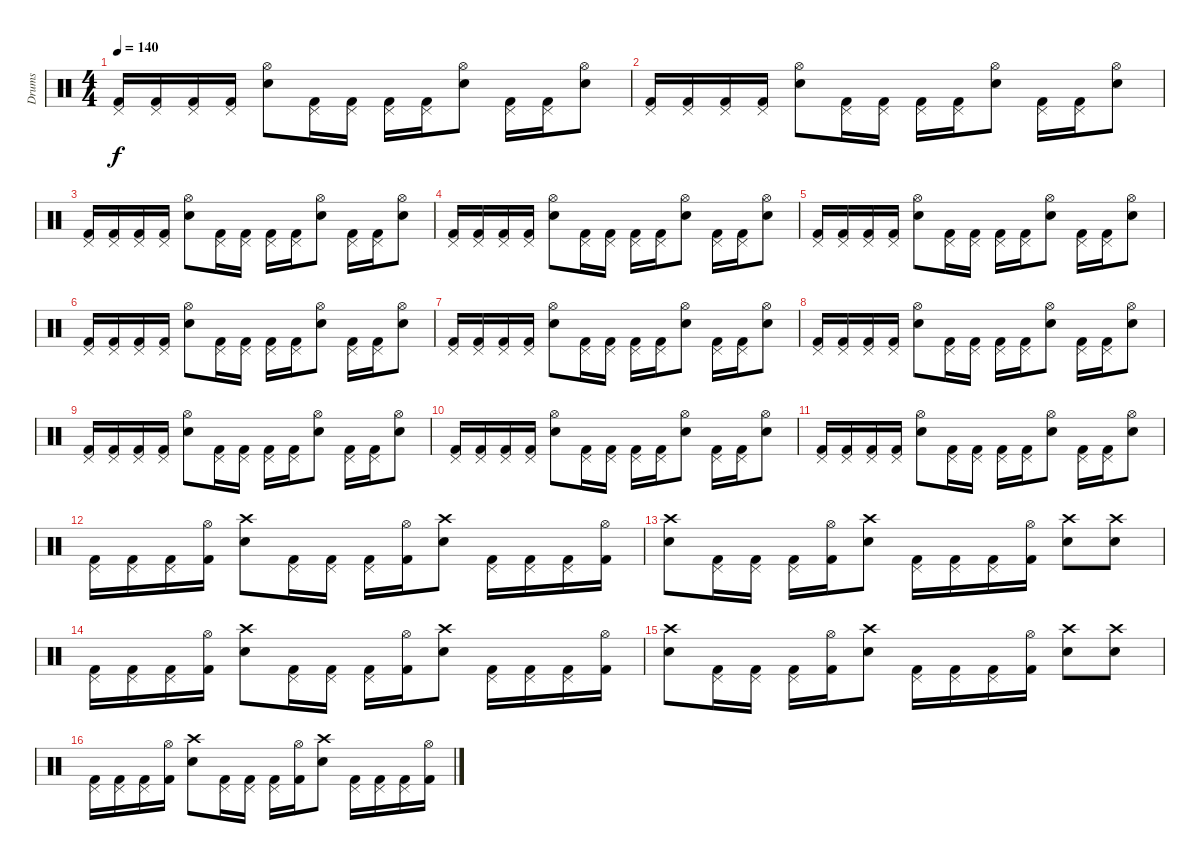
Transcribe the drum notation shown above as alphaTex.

\track ("Drums" "Drums") {instrument percussion}
\staff {score}
\articulation defaults
\ts (4 4)
\tempo 140
\clef neutral
\ks c
("Pedal Hi-Hat (hit)" "Kick (hit) 2").16{dy f} ("Pedal Hi-Hat (hit)" "Kick (hit) 2").16 ("Pedal Hi-Hat (hit)" "Kick (hit) 2").16 ("Pedal Hi-Hat (hit)" "Kick (hit) 2").16 ("Hi-Hat (open)" "Electric Snare (hit)").8 ("Pedal Hi-Hat (hit)" "Kick (hit) 2").16 ("Pedal Hi-Hat (hit)" "Kick (hit) 2").16 ("Pedal Hi-Hat (hit)" "Kick (hit) 2").16 ("Pedal Hi-Hat (hit)" "Kick (hit) 2").16 ("Hi-Hat (open)" "Electric Snare (hit)").8 ("Pedal Hi-Hat (hit)" "Kick (hit) 2").16 ("Pedal Hi-Hat (hit)" "Kick (hit) 2").16 ("Hi-Hat (open)" "Electric Snare (hit)").8 |
("Pedal Hi-Hat (hit)" "Kick (hit) 2").16 ("Pedal Hi-Hat (hit)" "Kick (hit) 2").16 ("Pedal Hi-Hat (hit)" "Kick (hit) 2").16 ("Pedal Hi-Hat (hit)" "Kick (hit) 2").16 ("Hi-Hat (open)" "Electric Snare (hit)").8 ("Pedal Hi-Hat (hit)" "Kick (hit) 2").16 ("Pedal Hi-Hat (hit)" "Kick (hit) 2").16 ("Pedal Hi-Hat (hit)" "Kick (hit) 2").16 ("Pedal Hi-Hat (hit)" "Kick (hit) 2").16 ("Hi-Hat (open)" "Electric Snare (hit)").8 ("Pedal Hi-Hat (hit)" "Kick (hit) 2").16 ("Pedal Hi-Hat (hit)" "Kick (hit) 2").16 ("Hi-Hat (open)" "Electric Snare (hit)").8 |
("Pedal Hi-Hat (hit)" "Kick (hit) 2").16 ("Pedal Hi-Hat (hit)" "Kick (hit) 2").16 ("Pedal Hi-Hat (hit)" "Kick (hit) 2").16 ("Pedal Hi-Hat (hit)" "Kick (hit) 2").16 ("Hi-Hat (open)" "Electric Snare (hit)").8 ("Pedal Hi-Hat (hit)" "Kick (hit) 2").16 ("Pedal Hi-Hat (hit)" "Kick (hit) 2").16 ("Pedal Hi-Hat (hit)" "Kick (hit) 2").16 ("Pedal Hi-Hat (hit)" "Kick (hit) 2").16 ("Hi-Hat (open)" "Electric Snare (hit)").8 ("Pedal Hi-Hat (hit)" "Kick (hit) 2").16 ("Pedal Hi-Hat (hit)" "Kick (hit) 2").16 ("Hi-Hat (open)" "Electric Snare (hit)").8 |
("Pedal Hi-Hat (hit)" "Kick (hit) 2").16 ("Pedal Hi-Hat (hit)" "Kick (hit) 2").16 ("Pedal Hi-Hat (hit)" "Kick (hit) 2").16 ("Pedal Hi-Hat (hit)" "Kick (hit) 2").16 ("Hi-Hat (open)" "Electric Snare (hit)").8 ("Pedal Hi-Hat (hit)" "Kick (hit) 2").16 ("Pedal Hi-Hat (hit)" "Kick (hit) 2").16 ("Pedal Hi-Hat (hit)" "Kick (hit) 2").16 ("Pedal Hi-Hat (hit)" "Kick (hit) 2").16 ("Hi-Hat (open)" "Electric Snare (hit)").8 ("Pedal Hi-Hat (hit)" "Kick (hit) 2").16 ("Pedal Hi-Hat (hit)" "Kick (hit) 2").16 ("Hi-Hat (open)" "Electric Snare (hit)").8 |
("Pedal Hi-Hat (hit)" "Kick (hit) 2").16 ("Pedal Hi-Hat (hit)" "Kick (hit) 2").16 ("Pedal Hi-Hat (hit)" "Kick (hit) 2").16 ("Pedal Hi-Hat (hit)" "Kick (hit) 2").16 ("Hi-Hat (open)" "Electric Snare (hit)").8 ("Pedal Hi-Hat (hit)" "Kick (hit) 2").16 ("Pedal Hi-Hat (hit)" "Kick (hit) 2").16 ("Pedal Hi-Hat (hit)" "Kick (hit) 2").16 ("Pedal Hi-Hat (hit)" "Kick (hit) 2").16 ("Hi-Hat (open)" "Electric Snare (hit)").8 ("Pedal Hi-Hat (hit)" "Kick (hit) 2").16 ("Pedal Hi-Hat (hit)" "Kick (hit) 2").16 ("Hi-Hat (open)" "Electric Snare (hit)").8 |
("Pedal Hi-Hat (hit)" "Kick (hit) 2").16 ("Pedal Hi-Hat (hit)" "Kick (hit) 2").16 ("Pedal Hi-Hat (hit)" "Kick (hit) 2").16 ("Pedal Hi-Hat (hit)" "Kick (hit) 2").16 ("Hi-Hat (open)" "Electric Snare (hit)").8 ("Pedal Hi-Hat (hit)" "Kick (hit) 2").16 ("Pedal Hi-Hat (hit)" "Kick (hit) 2").16 ("Pedal Hi-Hat (hit)" "Kick (hit) 2").16 ("Pedal Hi-Hat (hit)" "Kick (hit) 2").16 ("Hi-Hat (open)" "Electric Snare (hit)").8 ("Pedal Hi-Hat (hit)" "Kick (hit) 2").16 ("Pedal Hi-Hat (hit)" "Kick (hit) 2").16 ("Hi-Hat (open)" "Electric Snare (hit)").8 |
("Pedal Hi-Hat (hit)" "Kick (hit) 2").16 ("Pedal Hi-Hat (hit)" "Kick (hit) 2").16 ("Pedal Hi-Hat (hit)" "Kick (hit) 2").16 ("Pedal Hi-Hat (hit)" "Kick (hit) 2").16 ("Hi-Hat (open)" "Electric Snare (hit)").8 ("Pedal Hi-Hat (hit)" "Kick (hit) 2").16 ("Pedal Hi-Hat (hit)" "Kick (hit) 2").16 ("Pedal Hi-Hat (hit)" "Kick (hit) 2").16 ("Pedal Hi-Hat (hit)" "Kick (hit) 2").16 ("Hi-Hat (open)" "Electric Snare (hit)").8 ("Pedal Hi-Hat (hit)" "Kick (hit) 2").16 ("Pedal Hi-Hat (hit)" "Kick (hit) 2").16 ("Hi-Hat (open)" "Electric Snare (hit)").8 |
("Pedal Hi-Hat (hit)" "Kick (hit) 2").16 ("Pedal Hi-Hat (hit)" "Kick (hit) 2").16 ("Pedal Hi-Hat (hit)" "Kick (hit) 2").16 ("Pedal Hi-Hat (hit)" "Kick (hit) 2").16 ("Hi-Hat (open)" "Electric Snare (hit)").8 ("Pedal Hi-Hat (hit)" "Kick (hit) 2").16 ("Pedal Hi-Hat (hit)" "Kick (hit) 2").16 ("Pedal Hi-Hat (hit)" "Kick (hit) 2").16 ("Pedal Hi-Hat (hit)" "Kick (hit) 2").16 ("Hi-Hat (open)" "Electric Snare (hit)").8 ("Pedal Hi-Hat (hit)" "Kick (hit) 2").16 ("Pedal Hi-Hat (hit)" "Kick (hit) 2").16 ("Hi-Hat (open)" "Electric Snare (hit)").8 |
("Pedal Hi-Hat (hit)" "Kick (hit) 2").16 ("Pedal Hi-Hat (hit)" "Kick (hit) 2").16 ("Pedal Hi-Hat (hit)" "Kick (hit) 2").16 ("Pedal Hi-Hat (hit)" "Kick (hit) 2").16 ("Hi-Hat (open)" "Electric Snare (hit)").8 ("Pedal Hi-Hat (hit)" "Kick (hit) 2").16 ("Pedal Hi-Hat (hit)" "Kick (hit) 2").16 ("Pedal Hi-Hat (hit)" "Kick (hit) 2").16 ("Pedal Hi-Hat (hit)" "Kick (hit) 2").16 ("Hi-Hat (open)" "Electric Snare (hit)").8 ("Pedal Hi-Hat (hit)" "Kick (hit) 2").16 ("Pedal Hi-Hat (hit)" "Kick (hit) 2").16 ("Hi-Hat (open)" "Electric Snare (hit)").8 |
("Pedal Hi-Hat (hit)" "Kick (hit) 2").16 ("Pedal Hi-Hat (hit)" "Kick (hit) 2").16 ("Pedal Hi-Hat (hit)" "Kick (hit) 2").16 ("Pedal Hi-Hat (hit)" "Kick (hit) 2").16 ("Hi-Hat (open)" "Electric Snare (hit)").8 ("Pedal Hi-Hat (hit)" "Kick (hit) 2").16 ("Pedal Hi-Hat (hit)" "Kick (hit) 2").16 ("Pedal Hi-Hat (hit)" "Kick (hit) 2").16 ("Pedal Hi-Hat (hit)" "Kick (hit) 2").16 ("Hi-Hat (open)" "Electric Snare (hit)").8 ("Pedal Hi-Hat (hit)" "Kick (hit) 2").16 ("Pedal Hi-Hat (hit)" "Kick (hit) 2").16 ("Hi-Hat (open)" "Electric Snare (hit)").8 |
("Pedal Hi-Hat (hit)" "Kick (hit) 2").16 ("Pedal Hi-Hat (hit)" "Kick (hit) 2").16 ("Pedal Hi-Hat (hit)" "Kick (hit) 2").16 ("Pedal Hi-Hat (hit)" "Kick (hit) 2").16 ("Hi-Hat (open)" "Electric Snare (hit)").8 ("Pedal Hi-Hat (hit)" "Kick (hit) 2").16 ("Pedal Hi-Hat (hit)" "Kick (hit) 2").16 ("Pedal Hi-Hat (hit)" "Kick (hit) 2").16 ("Pedal Hi-Hat (hit)" "Kick (hit) 2").16 ("Hi-Hat (open)" "Electric Snare (hit)").8 ("Pedal Hi-Hat (hit)" "Kick (hit) 2").16 ("Pedal Hi-Hat (hit)" "Kick (hit) 2").16 ("Hi-Hat (open)" "Electric Snare (hit)").8 |
("Pedal Hi-Hat (hit)" "Kick (hit) 2").16 ("Pedal Hi-Hat (hit)" "Kick (hit) 2").16 ("Pedal Hi-Hat (hit)" "Kick (hit) 2").16 ("Hi-Hat (open)" "Kick (hit) 2").16 ("Crash high (hit)" "Electric Snare (hit)").8 ("Pedal Hi-Hat (hit)" "Kick (hit) 2").16 ("Pedal Hi-Hat (hit)" "Kick (hit) 2").16 ("Pedal Hi-Hat (hit)" "Kick (hit) 2").16 ("Hi-Hat (open)" "Kick (hit) 2").16 ("Crash high (hit)" "Electric Snare (hit)").8 ("Pedal Hi-Hat (hit)" "Kick (hit) 2").16 ("Pedal Hi-Hat (hit)" "Kick (hit) 2").16 ("Pedal Hi-Hat (hit)" "Kick (hit) 2").16 ("Hi-Hat (open)" "Kick (hit) 2").16 |
("Crash high (hit)" "Electric Snare (hit)").8 ("Pedal Hi-Hat (hit)" "Kick (hit) 2").16 ("Pedal Hi-Hat (hit)" "Kick (hit) 2").16 ("Pedal Hi-Hat (hit)" "Kick (hit) 2").16 ("Hi-Hat (open)" "Kick (hit) 2").16 ("Crash high (hit)" "Electric Snare (hit)").8 ("Pedal Hi-Hat (hit)" "Kick (hit) 2").16 ("Pedal Hi-Hat (hit)" "Kick (hit) 2").16 ("Pedal Hi-Hat (hit)" "Kick (hit) 2").16 ("Hi-Hat (open)" "Kick (hit) 2").16 ("Crash high (hit)" "Electric Snare (hit)").8 ("Crash high (hit)" "Electric Snare (hit)").8 |
("Pedal Hi-Hat (hit)" "Kick (hit) 2").16 ("Pedal Hi-Hat (hit)" "Kick (hit) 2").16 ("Pedal Hi-Hat (hit)" "Kick (hit) 2").16 ("Hi-Hat (open)" "Kick (hit) 2").16 ("Crash high (hit)" "Electric Snare (hit)").8 ("Pedal Hi-Hat (hit)" "Kick (hit) 2").16 ("Pedal Hi-Hat (hit)" "Kick (hit) 2").16 ("Pedal Hi-Hat (hit)" "Kick (hit) 2").16 ("Hi-Hat (open)" "Kick (hit) 2").16 ("Crash high (hit)" "Electric Snare (hit)").8 ("Pedal Hi-Hat (hit)" "Kick (hit) 2").16 ("Pedal Hi-Hat (hit)" "Kick (hit) 2").16 ("Pedal Hi-Hat (hit)" "Kick (hit) 2").16 ("Hi-Hat (open)" "Kick (hit) 2").16 |
("Crash high (hit)" "Electric Snare (hit)").8 ("Pedal Hi-Hat (hit)" "Kick (hit) 2").16 ("Pedal Hi-Hat (hit)" "Kick (hit) 2").16 ("Pedal Hi-Hat (hit)" "Kick (hit) 2").16 ("Hi-Hat (open)" "Kick (hit) 2").16 ("Crash high (hit)" "Electric Snare (hit)").8 ("Pedal Hi-Hat (hit)" "Kick (hit) 2").16 ("Pedal Hi-Hat (hit)" "Kick (hit) 2").16 ("Pedal Hi-Hat (hit)" "Kick (hit) 2").16 ("Hi-Hat (open)" "Kick (hit) 2").16 ("Crash high (hit)" "Electric Snare (hit)").8 ("Crash high (hit)" "Electric Snare (hit)").8 |
("Pedal Hi-Hat (hit)" "Kick (hit) 2").16 ("Pedal Hi-Hat (hit)" "Kick (hit) 2").16 ("Pedal Hi-Hat (hit)" "Kick (hit) 2").16 ("Hi-Hat (open)" "Kick (hit) 2").16 ("Crash high (hit)" "Electric Snare (hit)").8 ("Pedal Hi-Hat (hit)" "Kick (hit) 2").16 ("Pedal Hi-Hat (hit)" "Kick (hit) 2").16 ("Pedal Hi-Hat (hit)" "Kick (hit) 2").16 ("Hi-Hat (open)" "Kick (hit) 2").16 ("Crash high (hit)" "Electric Snare (hit)").8 ("Pedal Hi-Hat (hit)" "Kick (hit) 2").16 ("Pedal Hi-Hat (hit)" "Kick (hit) 2").16 ("Pedal Hi-Hat (hit)" "Kick (hit) 2").16 ("Hi-Hat (open)" "Kick (hit) 2").16
